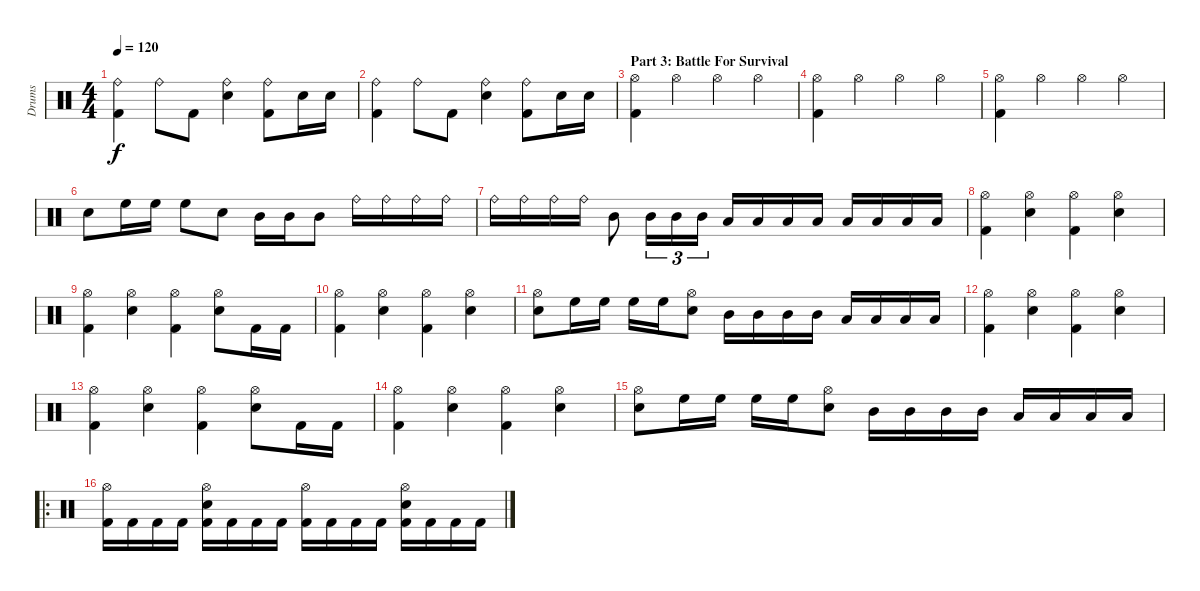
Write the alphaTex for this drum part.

\track ("Drums" "Drums") {instrument percussion}
\staff {score}
\articulation defaults
\ts (4 4)
\tempo 120
\clef neutral
\ks c
("Ride (bell)" "Kick (hit) 2").4{dy f} "Ride (bell)".8 "Kick (hit) 2".8 ("Ride (bell)" "Snare (hit) 2").4 ("Ride (bell)" "Kick (hit) 2").8 "Snare (hit) 2".16 "Snare (hit) 2".16 |
("Ride (bell)" "Kick (hit) 2").4 "Ride (bell)".8 "Kick (hit) 2".8 ("Ride (bell)" "Snare (hit) 2").4 ("Ride (bell)" "Kick (hit) 2").8 "Snare (hit) 2".16 "Snare (hit) 2".16 |
\section ("" "Part 3: Battle For Survival")
("Hi-Hat (open)" "Kick (hit) 2").4 "Hi-Hat (open)".4 "Hi-Hat (open)".4 "Hi-Hat (open)".4 |
("Hi-Hat (open)" "Kick (hit) 2").4 "Hi-Hat (open)".4 "Hi-Hat (open)".4 "Hi-Hat (open)".4 |
("Hi-Hat (open)" "Kick (hit) 2").4 "Hi-Hat (open)".4 "Hi-Hat (open)".4 "Hi-Hat (open)".4 |
"Snare (hit) 2".8 "High Floor Tom (hit)".16 "High Floor Tom (hit)".16 "High Floor Tom (hit)".8 "Snare (hit) 2".8 "Mid Tom (hit)".16 "Mid Tom (hit)".16 "Mid Tom (hit)".8 "Ride (bell)".16 "Ride (bell)".16 "Ride (bell)".16 "Ride (bell)".16 |
"Ride (bell)".16 "Ride (bell)".16 "Ride (bell)".16 "Ride (bell)".16 "Mid Tom (hit)".8 "Mid Tom (hit)".16{tu (3 2)} "Mid Tom (hit)".16{tu (3 2)} "Mid Tom (hit)".16{tu (3 2)} "Low Tom (hit)".16 "Low Tom (hit)".16 "Low Tom (hit)".16 "Low Tom (hit)".16 "Low Floor Tom (hit)".16 "Low Floor Tom (hit)".16 "Low Floor Tom (hit)".16 "Low Floor Tom (hit)".16 |
("Hi-Hat (open)" "Kick (hit) 2").4 ("Hi-Hat (open)" "Snare (hit) 2").4 ("Hi-Hat (open)" "Kick (hit) 2").4 ("Hi-Hat (open)" "Snare (hit) 2").4 |
("Hi-Hat (open)" "Kick (hit) 2").4 ("Hi-Hat (open)" "Snare (hit) 2").4 ("Hi-Hat (open)" "Kick (hit) 2").4 ("Hi-Hat (open)" "Snare (hit) 2").8 "Kick (hit) 2".16 "Kick (hit) 2".16 |
("Hi-Hat (open)" "Kick (hit) 2").4 ("Hi-Hat (open)" "Snare (hit) 2").4 ("Hi-Hat (open)" "Kick (hit) 2").4 ("Hi-Hat (open)" "Snare (hit) 2").4 |
("Hi-Hat (open)" "Snare (hit) 2").8 "High Floor Tom (hit)".16 "High Floor Tom (hit)".16 "High Floor Tom (hit)".16 "High Floor Tom (hit)".16 ("Hi-Hat (open)" "Snare (hit) 2").8 "Mid Tom (hit)".16 "Mid Tom (hit)".16 "Mid Tom (hit)".16 "Mid Tom (hit)".16 "Low Tom (hit)".16 "Low Tom (hit)".16 "Low Floor Tom (hit)".16 "Low Floor Tom (hit)".16 |
("Hi-Hat (open)" "Kick (hit) 2").4 ("Hi-Hat (open)" "Snare (hit) 2").4 ("Hi-Hat (open)" "Kick (hit) 2").4 ("Hi-Hat (open)" "Snare (hit) 2").4 |
("Hi-Hat (open)" "Kick (hit) 2").4 ("Hi-Hat (open)" "Snare (hit) 2").4 ("Hi-Hat (open)" "Kick (hit) 2").4 ("Hi-Hat (open)" "Snare (hit) 2").8 "Kick (hit) 2".16 "Kick (hit) 2".16 |
("Hi-Hat (open)" "Kick (hit) 2").4 ("Hi-Hat (open)" "Snare (hit) 2").4 ("Hi-Hat (open)" "Kick (hit) 2").4 ("Hi-Hat (open)" "Snare (hit) 2").4 |
("Hi-Hat (open)" "Snare (hit) 2").8 "High Floor Tom (hit)".16 "High Floor Tom (hit)".16 "High Floor Tom (hit)".16 "High Floor Tom (hit)".16 ("Hi-Hat (open)" "Snare (hit) 2").8 "Mid Tom (hit)".16 "Mid Tom (hit)".16 "Mid Tom (hit)".16 "Mid Tom (hit)".16 "Low Tom (hit)".16 "Low Tom (hit)".16 "Low Floor Tom (hit)".16 "Low Floor Tom (hit)".16 |
\ro
("Hi-Hat (open)" "Kick (hit) 2").16 "Kick (hit) 2".16 "Kick (hit) 2".16 "Kick (hit) 2".16 ("Snare (hit) 2" "Hi-Hat (open)" "Kick (hit) 2").16 "Kick (hit) 2".16 "Kick (hit) 2".16 "Kick (hit) 2".16 ("Hi-Hat (open)" "Kick (hit) 2").16 "Kick (hit) 2".16 "Kick (hit) 2".16 "Kick (hit) 2".16 ("Hi-Hat (open)" "Snare (hit) 2" "Kick (hit) 2").16 "Kick (hit) 2".16 "Kick (hit) 2".16 "Kick (hit) 2".16
